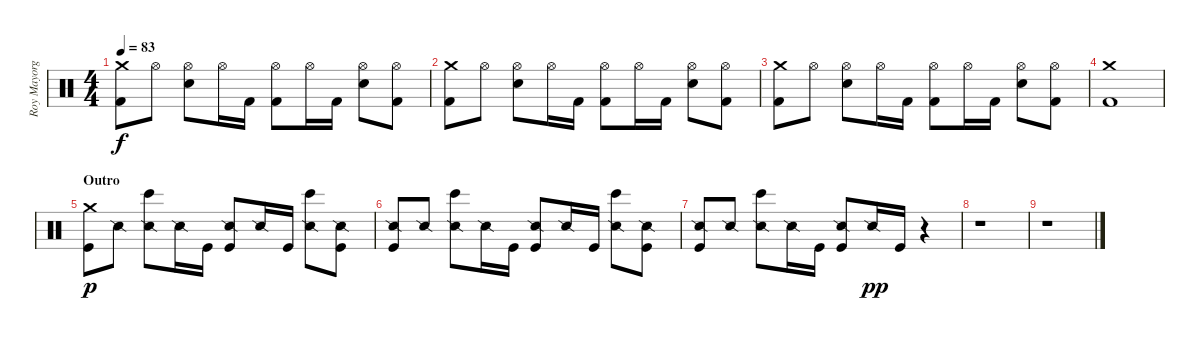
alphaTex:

\track ("Roy Mayorga" "Roy Mayorg") {instrument percussion}
\staff {score}
\articulation defaults
\ts (4 4)
\tempo 83
\clef neutral
\ks c
("Crash medium (hit)" "Kick (hit) 2").8{dy f} "Hi-Hat (open)".8 ("Hi-Hat (open)" "Electric Snare (hit)").8 "Hi-Hat (open)".16 "Kick (hit) 2".16 ("Kick (hit) 2" "Hi-Hat (open)").8 "Hi-Hat (open)".16 "Kick (hit) 2".16 ("Electric Snare (hit)" "Hi-Hat (open)").8 ("Hi-Hat (open)" "Kick (hit) 2").8 |
("Crash medium (hit)" "Kick (hit) 2").8 "Hi-Hat (open)".8 ("Hi-Hat (open)" "Electric Snare (hit)").8 "Hi-Hat (open)".16 "Kick (hit) 2".16 ("Kick (hit) 2" "Hi-Hat (open)").8 "Hi-Hat (open)".16 "Kick (hit) 2".16 ("Electric Snare (hit)" "Hi-Hat (open)").8 ("Hi-Hat (open)" "Kick (hit) 2").8 |
("Crash medium (hit)" "Kick (hit) 2").8 "Hi-Hat (open)".8 ("Hi-Hat (open)" "Electric Snare (hit)").8 "Hi-Hat (open)".16 "Kick (hit) 2".16 ("Kick (hit) 2" "Hi-Hat (open)").8 "Hi-Hat (open)".16 "Kick (hit) 2".16 ("Electric Snare (hit)" "Hi-Hat (open)").8 ("Hi-Hat (open)" "Kick (hit) 2").8 |
("Crash medium (hit)" "Kick (hit) 2").1 |
\section ("" "Outro")
("Crash medium (hit)" "Kick (hit)").8{dy p} "Snare (side stick) 2".8 ("Snare (side stick) 2" "Bongo High (hit)").8 "Snare (side stick) 2".16 "Kick (hit)".16 ("Kick (hit)" "Snare (side stick) 2").8 "Snare (side stick) 2".16 "Kick (hit)".16 ("Bongo High (hit)" "Snare (side stick) 2").8 ("Kick (hit)" "Snare (side stick) 2").8 |
("Snare (side stick) 2" "Kick (hit)").8 "Snare (side stick) 2".8 ("Snare (side stick) 2" "Bongo High (hit)").8 "Snare (side stick) 2".16 "Kick (hit)".16 ("Kick (hit)" "Snare (side stick) 2").8 "Snare (side stick) 2".16 "Kick (hit)".16 ("Bongo High (hit)" "Snare (side stick) 2").8 ("Snare (side stick) 2" "Kick (hit)").8 |
("Snare (side stick) 2" "Kick (hit)").8 "Snare (side stick) 2".8 ("Snare (side stick) 2" "Bongo High (hit)").8 "Snare (side stick) 2".16 "Kick (hit)".16 ("Kick (hit)" "Snare (side stick) 2").8 "Snare (side stick) 2".16{dy pp} "Kick (hit)".16 r.4 |
r.1 |
r.1
